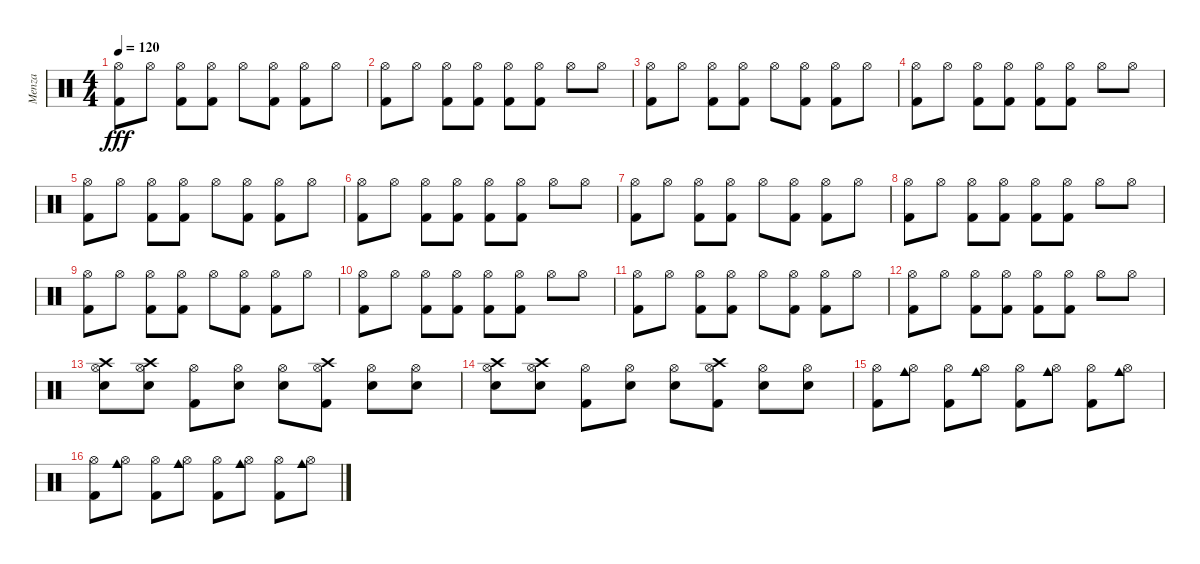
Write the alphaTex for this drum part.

\track ("Menza" "Menza") {instrument percussion}
\staff {score}
\articulation defaults
\ts (4 4)
\tempo 120
\clef neutral
\ks c
("Hi-Hat (open)" "Kick (hit) 2").8{dy fff} "Hi-Hat (open)".8 ("Hi-Hat (open)" "Kick (hit) 2").8 ("Hi-Hat (open)" "Kick (hit) 2").8 "Hi-Hat (open)".8 ("Hi-Hat (open)" "Kick (hit) 2").8 ("Hi-Hat (open)" "Kick (hit) 2").8 "Hi-Hat (open)".8 |
("Hi-Hat (open)" "Kick (hit) 2").8 "Hi-Hat (open)".8 ("Hi-Hat (open)" "Kick (hit) 2").8 ("Hi-Hat (open)" "Kick (hit) 2").8 ("Hi-Hat (open)" "Kick (hit) 2").8 ("Hi-Hat (open)" "Kick (hit) 2").8 "Hi-Hat (open)".8 "Hi-Hat (open)".8 |
("Hi-Hat (open)" "Kick (hit) 2").8 "Hi-Hat (open)".8 ("Hi-Hat (open)" "Kick (hit) 2").8 ("Hi-Hat (open)" "Kick (hit) 2").8 "Hi-Hat (open)".8 ("Hi-Hat (open)" "Kick (hit) 2").8 ("Hi-Hat (open)" "Kick (hit) 2").8 "Hi-Hat (open)".8 |
("Hi-Hat (open)" "Kick (hit) 2").8 "Hi-Hat (open)".8 ("Hi-Hat (open)" "Kick (hit) 2").8 ("Hi-Hat (open)" "Kick (hit) 2").8 ("Hi-Hat (open)" "Kick (hit) 2").8 ("Hi-Hat (open)" "Kick (hit) 2").8 "Hi-Hat (open)".8 "Hi-Hat (open)".8 |
("Hi-Hat (open)" "Kick (hit) 2").8 "Hi-Hat (open)".8 ("Hi-Hat (open)" "Kick (hit) 2").8 ("Hi-Hat (open)" "Kick (hit) 2").8 "Hi-Hat (open)".8 ("Hi-Hat (open)" "Kick (hit) 2").8 ("Hi-Hat (open)" "Kick (hit) 2").8 "Hi-Hat (open)".8 |
("Hi-Hat (open)" "Kick (hit) 2").8 "Hi-Hat (open)".8 ("Hi-Hat (open)" "Kick (hit) 2").8 ("Hi-Hat (open)" "Kick (hit) 2").8 ("Hi-Hat (open)" "Kick (hit) 2").8 ("Hi-Hat (open)" "Kick (hit) 2").8 "Hi-Hat (open)".8 "Hi-Hat (open)".8 |
("Hi-Hat (open)" "Kick (hit) 2").8 "Hi-Hat (open)".8 ("Hi-Hat (open)" "Kick (hit) 2").8 ("Hi-Hat (open)" "Kick (hit) 2").8 "Hi-Hat (open)".8 ("Hi-Hat (open)" "Kick (hit) 2").8 ("Hi-Hat (open)" "Kick (hit) 2").8 "Hi-Hat (open)".8 |
("Hi-Hat (open)" "Kick (hit) 2").8 "Hi-Hat (open)".8 ("Hi-Hat (open)" "Kick (hit) 2").8 ("Hi-Hat (open)" "Kick (hit) 2").8 ("Hi-Hat (open)" "Kick (hit) 2").8 ("Hi-Hat (open)" "Kick (hit) 2").8 "Hi-Hat (open)".8 "Hi-Hat (open)".8 |
("Hi-Hat (open)" "Kick (hit) 2").8 "Hi-Hat (open)".8 ("Hi-Hat (open)" "Kick (hit) 2").8 ("Hi-Hat (open)" "Kick (hit) 2").8 "Hi-Hat (open)".8 ("Hi-Hat (open)" "Kick (hit) 2").8 ("Hi-Hat (open)" "Kick (hit) 2").8 "Hi-Hat (open)".8 |
("Hi-Hat (open)" "Kick (hit) 2").8 "Hi-Hat (open)".8 ("Hi-Hat (open)" "Kick (hit) 2").8 ("Hi-Hat (open)" "Kick (hit) 2").8 ("Hi-Hat (open)" "Kick (hit) 2").8 ("Hi-Hat (open)" "Kick (hit) 2").8 "Hi-Hat (open)".8 "Hi-Hat (open)".8 |
("Hi-Hat (open)" "Kick (hit) 2").8 "Hi-Hat (open)".8 ("Hi-Hat (open)" "Kick (hit) 2").8 ("Hi-Hat (open)" "Kick (hit) 2").8 "Hi-Hat (open)".8 ("Hi-Hat (open)" "Kick (hit) 2").8 ("Hi-Hat (open)" "Kick (hit) 2").8 "Hi-Hat (open)".8 |
("Hi-Hat (open)" "Kick (hit) 2").8 "Hi-Hat (open)".8 ("Hi-Hat (open)" "Kick (hit) 2").8 ("Hi-Hat (open)" "Kick (hit) 2").8 ("Hi-Hat (open)" "Kick (hit) 2").8 ("Hi-Hat (open)" "Kick (hit) 2").8 "Hi-Hat (open)".8 "Hi-Hat (open)".8 |
("Hi-Hat (open)" "Snare (hit) 2" "Crash high (hit)").8 ("Hi-Hat (open)" "Snare (hit) 2" "Crash high (hit)").8 ("Hi-Hat (open)" "Kick (hit) 2").8 ("Hi-Hat (open)" "Snare (hit) 2").8 ("Hi-Hat (open)" "Snare (hit) 2").8 ("Hi-Hat (open)" "Crash high (hit)" "Kick (hit) 2").8 ("Hi-Hat (open)" "Snare (hit) 2").8 ("Hi-Hat (open)" "Snare (hit) 2").8 |
("Hi-Hat (open)" "Snare (hit) 2" "Crash high (hit)").8 ("Hi-Hat (open)" "Snare (hit) 2" "Crash high (hit)").8 ("Hi-Hat (open)" "Kick (hit) 2").8 ("Hi-Hat (open)" "Snare (hit) 2").8 ("Hi-Hat (open)" "Snare (hit) 2").8 ("Hi-Hat (open)" "Crash high (hit)" "Kick (hit) 2").8 ("Hi-Hat (open)" "Snare (hit) 2").8 ("Hi-Hat (open)" "Snare (hit) 2").8 |
("Hi-Hat (open)" "Kick (hit) 2").8 ("Hi-Hat (open)" "Cowbell medium (hit)").8 ("Hi-Hat (open)" "Kick (hit) 2").8 ("Hi-Hat (open)" "Cowbell medium (hit)").8 ("Hi-Hat (open)" "Kick (hit) 2").8 ("Hi-Hat (open)" "Cowbell medium (hit)").8 ("Hi-Hat (open)" "Kick (hit) 2").8 ("Hi-Hat (open)" "Cowbell medium (hit)").8 |
("Hi-Hat (open)" "Kick (hit) 2").8 ("Hi-Hat (open)" "Cowbell medium (hit)").8 ("Hi-Hat (open)" "Kick (hit) 2").8 ("Hi-Hat (open)" "Cowbell medium (hit)").8 ("Hi-Hat (open)" "Kick (hit) 2").8 ("Hi-Hat (open)" "Cowbell medium (hit)").8 ("Hi-Hat (open)" "Kick (hit) 2").8 ("Hi-Hat (open)" "Cowbell medium (hit)").8
